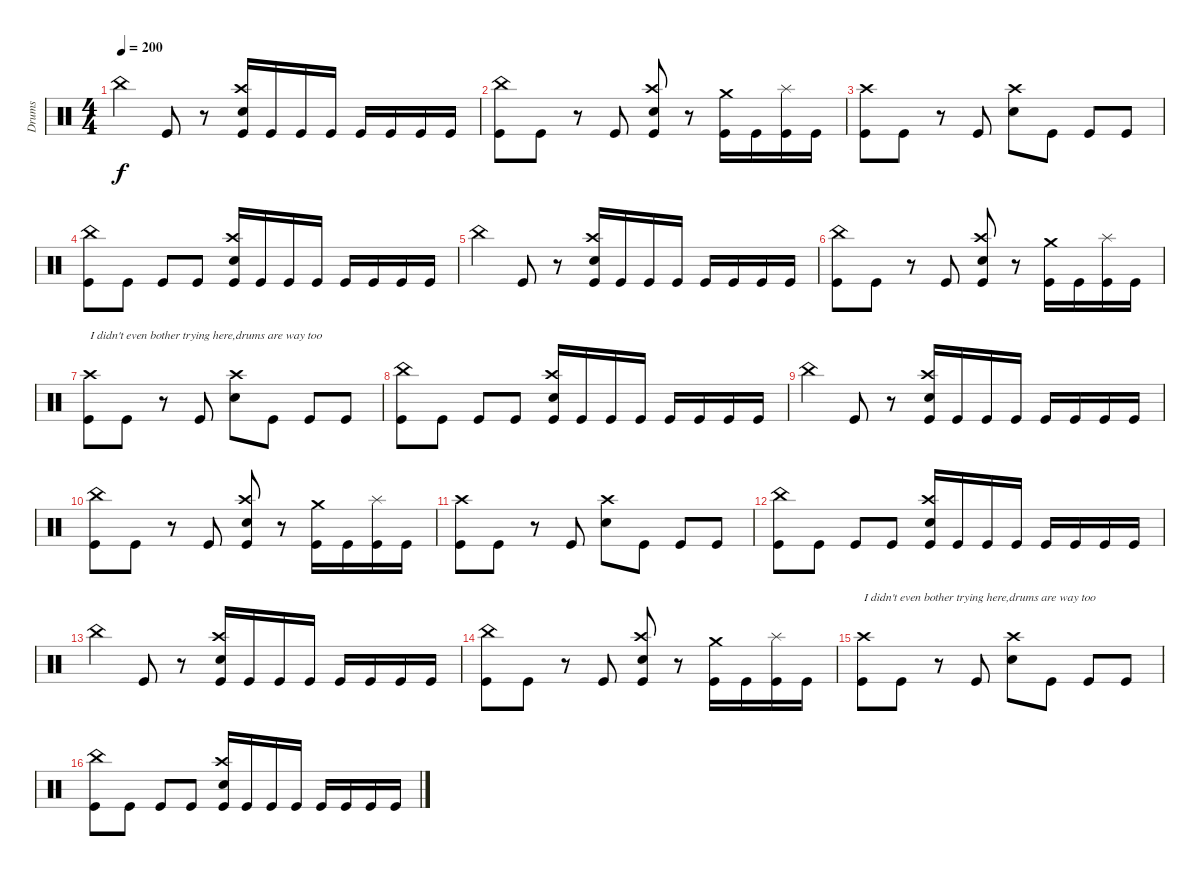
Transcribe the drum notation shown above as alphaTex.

\track ("Drums" "Drums") {instrument percussion}
\staff {score}
\articulation defaults
\ts (4 4)
\tempo 200
\clef neutral
\ks c "China (hit)".4{dy f} "Kick (hit)".8
r.8 ("Crash high (hit)" "Snare (hit) 2" "Kick (hit)").16 "Kick (hit)".16 "Kick (hit)".16 "Kick (hit)".16 "Kick (hit)".16 "Kick (hit)".16 "Kick (hit)".16 "Kick (hit)".16 |
("China (hit)" "Kick (hit)").8 "Kick (hit)".8 r.8 "Kick (hit)".8 ("Crash high (hit)" "Snare (hit) 2" "Kick (hit)").8 r.8 ("Crash medium (hit)" "Kick (hit)").16 "Kick (hit)".16 ("Splash (hit)" "Kick (hit)").16 "Kick (hit)".16 |
("Crash high (hit)" "Kick (hit)").8 "Kick (hit)".8 r.8 "Kick (hit)".8 ("Crash high (hit)" "Snare (hit) 2").8 "Kick (hit)".8 "Kick (hit)".8 "Kick (hit)".8 |
("China (hit)" "Kick (hit)").8 "Kick (hit)".8 "Kick (hit)".8 "Kick (hit)".8 ("Crash high (hit)" "Snare (hit) 2" "Kick (hit)").16 "Kick (hit)".16 "Kick (hit)".16 "Kick (hit)".16 "Kick (hit)".16 "Kick (hit)".16 "Kick (hit)".16 "Kick (hit)".16 |
"China (hit)".4 "Kick (hit)".8 r.8 ("Crash high (hit)" "Snare (hit) 2" "Kick (hit)").16 "Kick (hit)".16 "Kick (hit)".16 "Kick (hit)".16 "Kick (hit)".16 "Kick (hit)".16 "Kick (hit)".16 "Kick (hit)".16 |
("China (hit)" "Kick (hit)").8 "Kick (hit)".8 r.8 "Kick (hit)".8 ("Crash high (hit)" "Snare (hit) 2" "Kick (hit)").8 r.8 ("Crash medium (hit)" "Kick (hit)").16 "Kick (hit)".16 ("Splash (hit)" "Kick (hit)").16 "Kick (hit)".16 |
("Crash high (hit)" "Kick (hit)").8{txt "I didn't even bother trying here,drums are way too"} "Kick (hit)".8 r.8 "Kick (hit)".8 ("Crash high (hit)" "Snare (hit) 2").8 "Kick (hit)".8 "Kick (hit)".8 "Kick (hit)".8 |
("China (hit)" "Kick (hit)").8 "Kick (hit)".8 "Kick (hit)".8 "Kick (hit)".8 ("Crash high (hit)" "Snare (hit) 2" "Kick (hit)").16 "Kick (hit)".16 "Kick (hit)".16 "Kick (hit)".16 "Kick (hit)".16 "Kick (hit)".16 "Kick (hit)".16 "Kick (hit)".16 |
"China (hit)".4 "Kick (hit)".8 r.8 ("Crash high (hit)" "Snare (hit) 2" "Kick (hit)").16 "Kick (hit)".16 "Kick (hit)".16 "Kick (hit)".16 "Kick (hit)".16 "Kick (hit)".16 "Kick (hit)".16 "Kick (hit)".16 |
("China (hit)" "Kick (hit)").8 "Kick (hit)".8 r.8 "Kick (hit)".8 ("Crash high (hit)" "Snare (hit) 2" "Kick (hit)").8 r.8 ("Crash medium (hit)" "Kick (hit)").16 "Kick (hit)".16 ("Splash (hit)" "Kick (hit)").16 "Kick (hit)".16 |
("Crash high (hit)" "Kick (hit)").8 "Kick (hit)".8 r.8 "Kick (hit)".8 ("Crash high (hit)" "Snare (hit) 2").8 "Kick (hit)".8 "Kick (hit)".8 "Kick (hit)".8 |
("China (hit)" "Kick (hit)").8 "Kick (hit)".8 "Kick (hit)".8 "Kick (hit)".8 ("Crash high (hit)" "Snare (hit) 2" "Kick (hit)").16 "Kick (hit)".16 "Kick (hit)".16 "Kick (hit)".16 "Kick (hit)".16 "Kick (hit)".16 "Kick (hit)".16 "Kick (hit)".16 |
"China (hit)".4 "Kick (hit)".8 r.8 ("Crash high (hit)" "Snare (hit) 2" "Kick (hit)").16 "Kick (hit)".16 "Kick (hit)".16 "Kick (hit)".16 "Kick (hit)".16 "Kick (hit)".16 "Kick (hit)".16 "Kick (hit)".16 |
("China (hit)" "Kick (hit)").8 "Kick (hit)".8 r.8 "Kick (hit)".8 ("Crash high (hit)" "Snare (hit) 2" "Kick (hit)").8 r.8 ("Crash medium (hit)" "Kick (hit)").16 "Kick (hit)".16 ("Splash (hit)" "Kick (hit)").16 "Kick (hit)".16 |
("Crash high (hit)" "Kick (hit)").8{txt "I didn't even bother trying here,drums are way too"} "Kick (hit)".8 r.8 "Kick (hit)".8 ("Crash high (hit)" "Snare (hit) 2").8 "Kick (hit)".8 "Kick (hit)".8 "Kick (hit)".8 |
("China (hit)" "Kick (hit)").8 "Kick (hit)".8 "Kick (hit)".8 "Kick (hit)".8 ("Crash high (hit)" "Snare (hit) 2" "Kick (hit)").16 "Kick (hit)".16 "Kick (hit)".16 "Kick (hit)".16 "Kick (hit)".16 "Kick (hit)".16 "Kick (hit)".16 "Kick (hit)".16
